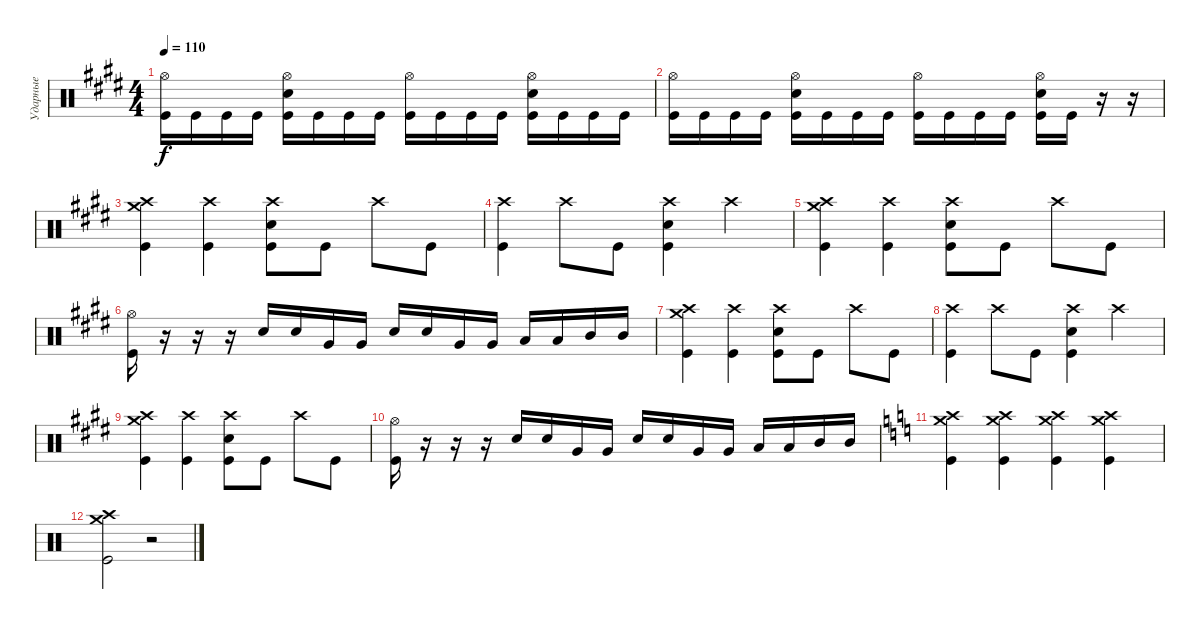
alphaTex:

\track ("Ударные" "Ударные") {instrument percussion}
\staff {score}
\articulation defaults
\ts (4 4)
\tempo 110
\clef neutral
\ks e
("Hi-Hat (open)" "Kick (hit)").16{dy f} "Kick (hit)".16 "Kick (hit)".16 "Kick (hit)".16 ("Hi-Hat (open)" "Electric Snare (hit)" "Kick (hit)").16 "Kick (hit)".16 "Kick (hit)".16 "Kick (hit)".16 ("Hi-Hat (open)" "Kick (hit)").16 "Kick (hit)".16 "Kick (hit)".16 "Kick (hit)".16 ("Hi-Hat (open)" "Electric Snare (hit)" "Kick (hit)").16 "Kick (hit)".16 "Kick (hit)".16 "Kick (hit)".16 |
("Hi-Hat (open)" "Kick (hit)").16 "Kick (hit)".16 "Kick (hit)".16 "Kick (hit)".16 ("Hi-Hat (open)" "Electric Snare (hit)" "Kick (hit)").16 "Kick (hit)".16 "Kick (hit)".16 "Kick (hit)".16 ("Hi-Hat (open)" "Kick (hit)").16 "Kick (hit)".16 "Kick (hit)".16 "Kick (hit)".16 ("Hi-Hat (open)" "Electric Snare (hit)" "Kick (hit)").16 "Kick (hit)".16 r.16 r.16 |
("Crash high (hit)" "Crash medium (hit)" "Kick (hit)").4 ("Crash high (hit)" "Kick (hit)").4 ("Crash high (hit)" "Electric Snare (hit)" "Kick (hit)").8 "Kick (hit)".8 "Crash high (hit)".8 "Kick (hit)".8 |
("Crash high (hit)" "Kick (hit)").4 "Crash high (hit)".8 "Kick (hit)".8 ("Crash high (hit)" "Electric Snare (hit)" "Kick (hit)").4 "Crash high (hit)".4 |
("Crash high (hit)" "Crash medium (hit)" "Kick (hit)").4 ("Crash high (hit)" "Kick (hit)").4 ("Crash high (hit)" "Electric Snare (hit)" "Kick (hit)").8 "Kick (hit)".8 "Crash high (hit)".8 "Kick (hit)".8 |
("Hi-Hat (open)" "Kick (hit)").16 r.16 r.16 r.16 "Electric Snare (hit)".16 "Electric Snare (hit)".16 "Very Low Tom (hit)".16 "Very Low Tom (hit)".16 "Electric Snare (hit)".16 "Electric Snare (hit)".16 "Very Low Tom (hit)".16 "Very Low Tom (hit)".16 "Low Tom (hit)".16 "Low Tom (hit)".16 "Mid Tom (hit)".16 "Mid Tom (hit)".16 |
("Crash high (hit)" "Crash medium (hit)" "Kick (hit)").4 ("Crash high (hit)" "Kick (hit)").4 ("Crash high (hit)" "Electric Snare (hit)" "Kick (hit)").8 "Kick (hit)".8 "Crash high (hit)".8 "Kick (hit)".8 |
("Crash high (hit)" "Kick (hit)").4 "Crash high (hit)".8 "Kick (hit)".8 ("Crash high (hit)" "Electric Snare (hit)" "Kick (hit)").4 "Crash high (hit)".4 |
("Crash high (hit)" "Crash medium (hit)" "Kick (hit)").4 ("Crash high (hit)" "Kick (hit)").4 ("Crash high (hit)" "Electric Snare (hit)" "Kick (hit)").8 "Kick (hit)".8 "Crash high (hit)".8 "Kick (hit)".8 |
("Hi-Hat (open)" "Kick (hit)").16 r.16 r.16 r.16 "Electric Snare (hit)".16 "Electric Snare (hit)".16 "Very Low Tom (hit)".16 "Very Low Tom (hit)".16 "Electric Snare (hit)".16 "Electric Snare (hit)".16 "Very Low Tom (hit)".16 "Very Low Tom (hit)".16 "Low Tom (hit)".16 "Low Tom (hit)".16 "Mid Tom (hit)".16 "Mid Tom (hit)".16 |
\ks c
("Crash high (hit)" "Crash medium (hit)" "Kick (hit)").4 ("Crash high (hit)" "Crash medium (hit)" "Kick (hit)").4 ("Crash high (hit)" "Crash medium (hit)" "Kick (hit)").4 ("Crash high (hit)" "Crash medium (hit)" "Kick (hit)").4 |
("Crash high (hit)" "Crash medium (hit)" "Kick (hit)").2 r.2
